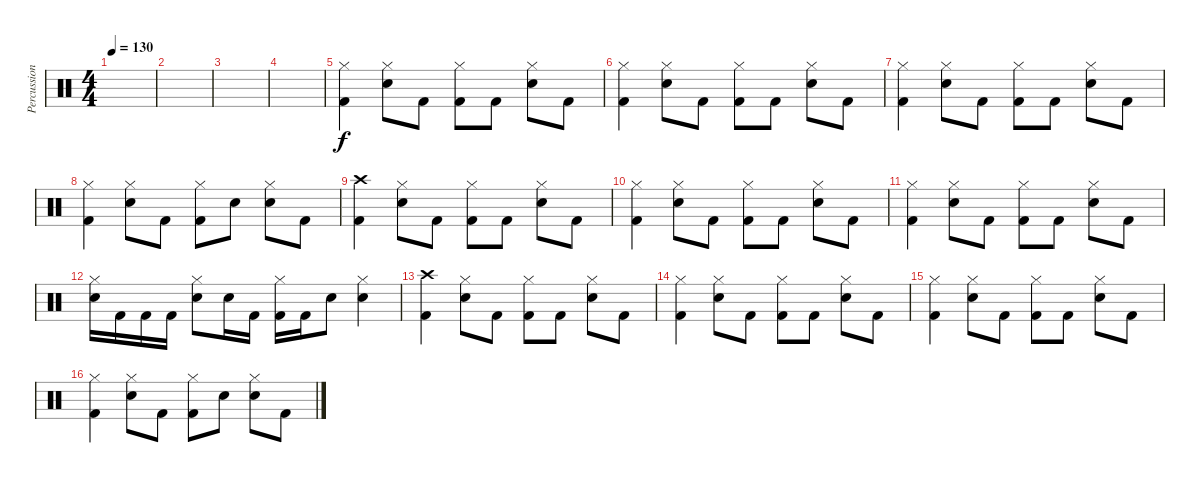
\track ("Percussion" "Percussion") {instrument percussion}
\staff {score}
\articulation defaults
\ts (4 4)
\tempo 130
\clef neutral
\ks c
|
|
|
|
("Hi-Hat (closed)" "Kick (hit) 2").4 ("Hi-Hat (closed)" "Electric Snare (hit)").8 "Kick (hit) 2".8 ("Hi-Hat (closed)" "Kick (hit) 2").8 "Kick (hit) 2".8 ("Hi-Hat (closed)" "Electric Snare (hit)").8 "Kick (hit) 2".8 |
("Hi-Hat (closed)" "Kick (hit) 2").4 ("Hi-Hat (closed)" "Electric Snare (hit)").8 "Kick (hit) 2".8 ("Hi-Hat (closed)" "Kick (hit) 2").8 "Kick (hit) 2".8 ("Hi-Hat (closed)" "Electric Snare (hit)").8 "Kick (hit) 2".8 |
("Hi-Hat (closed)" "Kick (hit) 2").4 ("Hi-Hat (closed)" "Electric Snare (hit)").8 "Kick (hit) 2".8 ("Hi-Hat (closed)" "Kick (hit) 2").8 "Kick (hit) 2".8 ("Hi-Hat (closed)" "Electric Snare (hit)").8 "Kick (hit) 2".8 |
("Hi-Hat (closed)" "Kick (hit) 2").4 ("Hi-Hat (closed)" "Electric Snare (hit)").8 "Kick (hit) 2".8 ("Hi-Hat (closed)" "Kick (hit) 2").8 "Electric Snare (hit)".8 ("Hi-Hat (closed)" "Electric Snare (hit)").8 "Kick (hit) 2".8 |
("Crash high (hit)" "Kick (hit) 2").4 ("Hi-Hat (closed)" "Electric Snare (hit)").8 "Kick (hit) 2".8 ("Hi-Hat (closed)" "Kick (hit) 2").8 "Kick (hit) 2".8 ("Hi-Hat (closed)" "Electric Snare (hit)").8 "Kick (hit) 2".8 |
("Hi-Hat (closed)" "Kick (hit) 2").4 ("Hi-Hat (closed)" "Electric Snare (hit)").8 "Kick (hit) 2".8 ("Hi-Hat (closed)" "Kick (hit) 2").8 "Kick (hit) 2".8 ("Hi-Hat (closed)" "Electric Snare (hit)").8 "Kick (hit) 2".8 |
("Hi-Hat (closed)" "Kick (hit) 2").4 ("Hi-Hat (closed)" "Electric Snare (hit)").8 "Kick (hit) 2".8 ("Hi-Hat (closed)" "Kick (hit) 2").8 "Kick (hit) 2".8 ("Hi-Hat (closed)" "Electric Snare (hit)").8 "Kick (hit) 2".8 |
("Hi-Hat (closed)" "Electric Snare (hit)").16 "Kick (hit) 2".16 "Kick (hit) 2".16 "Kick (hit) 2".16 ("Hi-Hat (closed)" "Electric Snare (hit)").8 "Electric Snare (hit)".16 "Kick (hit) 2".16 ("Hi-Hat (closed)" "Kick (hit) 2").16 "Kick (hit) 2".16 "Electric Snare (hit)".8 ("Hi-Hat (closed)" "Electric Snare (hit)").4 |
("Crash high (hit)" "Kick (hit) 2").4 ("Hi-Hat (closed)" "Electric Snare (hit)").8 "Kick (hit) 2".8 ("Hi-Hat (closed)" "Kick (hit) 2").8 "Kick (hit) 2".8 ("Hi-Hat (closed)" "Electric Snare (hit)").8 "Kick (hit) 2".8 |
("Hi-Hat (closed)" "Kick (hit) 2").4 ("Hi-Hat (closed)" "Electric Snare (hit)").8 "Kick (hit) 2".8 ("Hi-Hat (closed)" "Kick (hit) 2").8 "Kick (hit) 2".8 ("Hi-Hat (closed)" "Electric Snare (hit)").8 "Kick (hit) 2".8 |
("Hi-Hat (closed)" "Kick (hit) 2").4 ("Hi-Hat (closed)" "Electric Snare (hit)").8 "Kick (hit) 2".8 ("Hi-Hat (closed)" "Kick (hit) 2").8 "Kick (hit) 2".8 ("Hi-Hat (closed)" "Electric Snare (hit)").8 "Kick (hit) 2".8 |
("Hi-Hat (closed)" "Kick (hit) 2").4 ("Hi-Hat (closed)" "Electric Snare (hit)").8 "Kick (hit) 2".8 ("Hi-Hat (closed)" "Kick (hit) 2").8 "Electric Snare (hit)".8 ("Hi-Hat (closed)" "Electric Snare (hit)").8 "Kick (hit) 2".8
